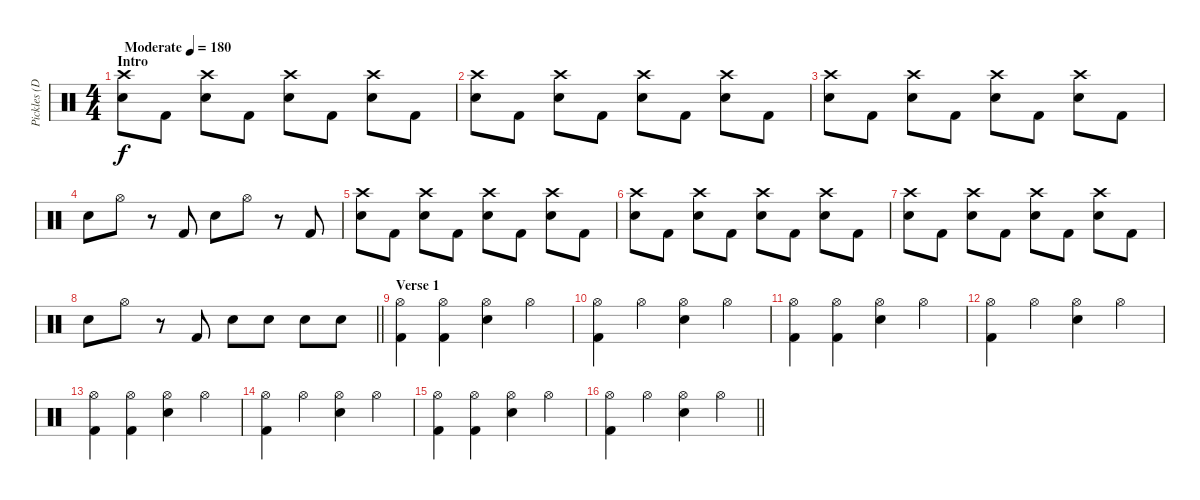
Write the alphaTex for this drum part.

\track ("Pickles (Drums)" "Pickles (D") {instrument percussion}
\staff {score}
\articulation defaults
\ts (4 4)
\section ("" "Intro")
\tempo (180 "Moderate")
\clef neutral
\ks c
("Crash high (hit)" "Snare (hit) 2").8{dy f} "Kick (hit) 2".8 ("Crash high (hit)" "Snare (hit) 2").8 "Kick (hit) 2".8 ("Crash high (hit)" "Snare (hit) 2").8 "Kick (hit) 2".8 ("Crash high (hit)" "Snare (hit) 2").8 "Kick (hit) 2".8 |
("Crash high (hit)" "Snare (hit) 2").8 "Kick (hit) 2".8 ("Crash high (hit)" "Snare (hit) 2").8 "Kick (hit) 2".8 ("Crash high (hit)" "Snare (hit) 2").8 "Kick (hit) 2".8 ("Crash high (hit)" "Snare (hit) 2").8 "Kick (hit) 2".8 |
("Crash high (hit)" "Snare (hit) 2").8 "Kick (hit) 2".8 ("Crash high (hit)" "Snare (hit) 2").8 "Kick (hit) 2".8 ("Crash high (hit)" "Snare (hit) 2").8 "Kick (hit) 2".8 ("Crash high (hit)" "Snare (hit) 2").8 "Kick (hit) 2".8 |
"Snare (hit) 2".8 "Hi-Hat (open)".8 r.8{volume 0} "Kick (hit) 2".8{volume 16} "Snare (hit) 2".8 "Hi-Hat (open)".8 r.8{volume 0} "Kick (hit) 2".8{volume 16} |
("Crash high (hit)" "Snare (hit) 2").8 "Kick (hit) 2".8 ("Crash high (hit)" "Snare (hit) 2").8 "Kick (hit) 2".8 ("Crash high (hit)" "Snare (hit) 2").8 "Kick (hit) 2".8 ("Crash high (hit)" "Snare (hit) 2").8 "Kick (hit) 2".8 |
("Crash high (hit)" "Snare (hit) 2").8 "Kick (hit) 2".8 ("Crash high (hit)" "Snare (hit) 2").8 "Kick (hit) 2".8 ("Crash high (hit)" "Snare (hit) 2").8 "Kick (hit) 2".8 ("Crash high (hit)" "Snare (hit) 2").8 "Kick (hit) 2".8 |
("Crash high (hit)" "Snare (hit) 2").8 "Kick (hit) 2".8 ("Crash high (hit)" "Snare (hit) 2").8 "Kick (hit) 2".8 ("Crash high (hit)" "Snare (hit) 2").8 "Kick (hit) 2".8 ("Crash high (hit)" "Snare (hit) 2").8 "Kick (hit) 2".8 |
\barLineRight lightlight "Snare (hit) 2".8 "Hi-Hat (open)".8
r.8{volume 0} "Kick (hit) 2".8{volume 16} "Snare (hit) 2".8 "Snare (hit) 2".8 "Snare (hit) 2".8 "Snare (hit) 2".8 |
\section ("" "Verse 1")
("Hi-Hat (open)" "Kick (hit) 2").4 ("Hi-Hat (open)" "Kick (hit) 2").4 ("Hi-Hat (open)" "Snare (hit) 2").4 "Hi-Hat (open)".4 |
("Hi-Hat (open)" "Kick (hit) 2").4 "Hi-Hat (open)".4 ("Hi-Hat (open)" "Snare (hit) 2").4 "Hi-Hat (open)".4 |
("Hi-Hat (open)" "Kick (hit) 2").4 ("Hi-Hat (open)" "Kick (hit) 2").4 ("Hi-Hat (open)" "Snare (hit) 2").4 "Hi-Hat (open)".4 |
("Hi-Hat (open)" "Kick (hit) 2").4 "Hi-Hat (open)".4 ("Hi-Hat (open)" "Snare (hit) 2").4 "Hi-Hat (open)".4 |
("Hi-Hat (open)" "Kick (hit) 2").4 ("Hi-Hat (open)" "Kick (hit) 2").4 ("Hi-Hat (open)" "Snare (hit) 2").4 "Hi-Hat (open)".4 |
("Hi-Hat (open)" "Kick (hit) 2").4 "Hi-Hat (open)".4 ("Hi-Hat (open)" "Snare (hit) 2").4 "Hi-Hat (open)".4 |
("Hi-Hat (open)" "Kick (hit) 2").4 ("Hi-Hat (open)" "Kick (hit) 2").4 ("Hi-Hat (open)" "Snare (hit) 2").4 "Hi-Hat (open)".4 |
\barLineRight lightlight
("Hi-Hat (open)" "Kick (hit) 2").4 "Hi-Hat (open)".4 ("Hi-Hat (open)" "Snare (hit) 2").4 "Hi-Hat (open)".4
